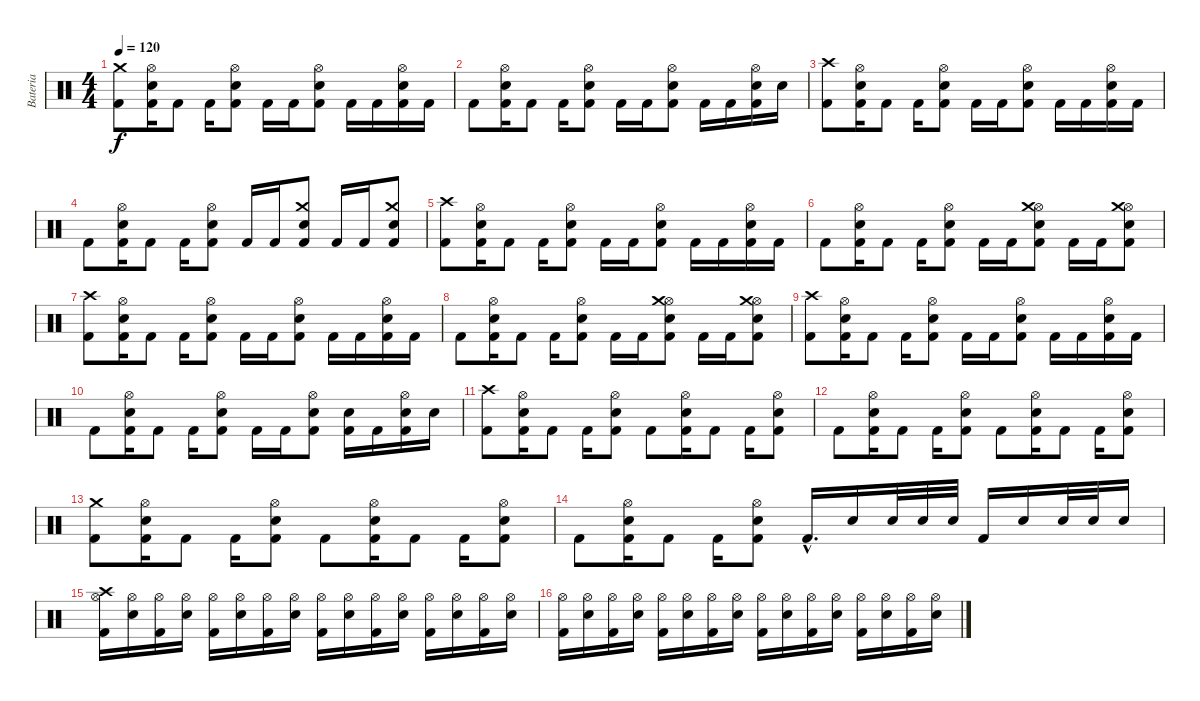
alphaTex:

\track ("Bateria" "Bateria") {instrument percussion}
\staff {score}
\articulation defaults
\ts (4 4)
\tempo 120
\clef neutral
\ks c
("Kick (hit) 2" "Crash medium (hit)").8{dy f} ("Kick (hit) 2" "Electric Snare (hit)" "Hi-Hat (open)").16 "Kick (hit) 2".8 "Kick (hit) 2".16 ("Kick (hit) 2" "Electric Snare (hit)" "Hi-Hat (open)").8 "Kick (hit) 2".16 "Kick (hit) 2".16 ("Kick (hit) 2" "Electric Snare (hit)" "Hi-Hat (open)").8 "Kick (hit) 2".16 "Kick (hit) 2".16 ("Kick (hit) 2" "Electric Snare (hit)" "Hi-Hat (open)").16 "Kick (hit) 2".16 |
"Kick (hit) 2".8 ("Kick (hit) 2" "Electric Snare (hit)" "Hi-Hat (open)").16 "Kick (hit) 2".8 "Kick (hit) 2".16 ("Kick (hit) 2" "Electric Snare (hit)" "Hi-Hat (open)").8 "Kick (hit) 2".16 "Kick (hit) 2".16 ("Kick (hit) 2" "Electric Snare (hit)" "Hi-Hat (open)").8 "Kick (hit) 2".16 "Kick (hit) 2".16 ("Kick (hit) 2" "Electric Snare (hit)" "Hi-Hat (open)").16 "Electric Snare (hit)".16 |
("Kick (hit) 2" "Crash high (hit)").8 ("Kick (hit) 2" "Electric Snare (hit)" "Hi-Hat (open)").16 "Kick (hit) 2".8 "Kick (hit) 2".16 ("Kick (hit) 2" "Electric Snare (hit)" "Hi-Hat (open)").8 "Kick (hit) 2".16 "Kick (hit) 2".16 ("Kick (hit) 2" "Electric Snare (hit)" "Hi-Hat (open)").8 "Kick (hit) 2".16 "Kick (hit) 2".16 ("Kick (hit) 2" "Electric Snare (hit)" "Hi-Hat (open)").16 "Kick (hit) 2".16 |
"Kick (hit) 2".8 ("Kick (hit) 2" "Electric Snare (hit)" "Hi-Hat (open)").16 "Kick (hit) 2".8 "Kick (hit) 2".16 ("Kick (hit) 2" "Electric Snare (hit)" "Hi-Hat (open)").8 "Kick (hit) 2".16 "Kick (hit) 2".16 ("Kick (hit) 2" "Electric Snare (hit)" "Crash medium (hit)").8 "Kick (hit) 2".16 "Kick (hit) 2".16 ("Kick (hit) 2" "Electric Snare (hit)" "Crash medium (hit)").8 |
("Kick (hit) 2" "Crash high (hit)").8 ("Kick (hit) 2" "Electric Snare (hit)" "Hi-Hat (open)").16 "Kick (hit) 2".8 "Kick (hit) 2".16 ("Kick (hit) 2" "Electric Snare (hit)" "Hi-Hat (open)").8 "Kick (hit) 2".16 "Kick (hit) 2".16 ("Kick (hit) 2" "Electric Snare (hit)" "Hi-Hat (open)").8 "Kick (hit) 2".16 "Kick (hit) 2".16 ("Kick (hit) 2" "Electric Snare (hit)" "Hi-Hat (open)").16 "Kick (hit) 2".16 |
"Kick (hit) 2".8 ("Kick (hit) 2" "Electric Snare (hit)" "Hi-Hat (open)").16 "Kick (hit) 2".8 "Kick (hit) 2".16 ("Kick (hit) 2" "Electric Snare (hit)" "Hi-Hat (open)").8 "Kick (hit) 2".16 "Kick (hit) 2".16 ("Kick (hit) 2" "Electric Snare (hit)" "Hi-Hat (open)" "Crash medium (hit)").8 "Kick (hit) 2".16 "Kick (hit) 2".16 ("Kick (hit) 2" "Electric Snare (hit)" "Hi-Hat (open)" "Crash medium (hit)").8 |
("Kick (hit) 2" "Crash high (hit)").8 ("Kick (hit) 2" "Electric Snare (hit)" "Hi-Hat (open)").16 "Kick (hit) 2".8 "Kick (hit) 2".16 ("Kick (hit) 2" "Electric Snare (hit)" "Hi-Hat (open)").8 "Kick (hit) 2".16 "Kick (hit) 2".16 ("Kick (hit) 2" "Electric Snare (hit)" "Hi-Hat (open)").8 "Kick (hit) 2".16 "Kick (hit) 2".16 ("Kick (hit) 2" "Electric Snare (hit)" "Hi-Hat (open)").16 "Kick (hit) 2".16 |
"Kick (hit) 2".8 ("Kick (hit) 2" "Electric Snare (hit)" "Hi-Hat (open)").16 "Kick (hit) 2".8 "Kick (hit) 2".16 ("Kick (hit) 2" "Electric Snare (hit)" "Hi-Hat (open)").8 "Kick (hit) 2".16 "Kick (hit) 2".16 ("Kick (hit) 2" "Electric Snare (hit)" "Hi-Hat (open)" "Crash medium (hit)").8 "Kick (hit) 2".16 "Kick (hit) 2".16 ("Kick (hit) 2" "Electric Snare (hit)" "Hi-Hat (open)" "Crash medium (hit)").8 |
("Kick (hit) 2" "Crash high (hit)").8 ("Kick (hit) 2" "Electric Snare (hit)" "Hi-Hat (open)").16 "Kick (hit) 2".8 "Kick (hit) 2".16 ("Kick (hit) 2" "Electric Snare (hit)" "Hi-Hat (open)").8 "Kick (hit) 2".16 "Kick (hit) 2".16 ("Kick (hit) 2" "Electric Snare (hit)" "Hi-Hat (open)").8 "Kick (hit) 2".16 "Kick (hit) 2".16 ("Kick (hit) 2" "Electric Snare (hit)" "Hi-Hat (open)").16 "Kick (hit) 2".16 |
"Kick (hit) 2".8 ("Kick (hit) 2" "Electric Snare (hit)" "Hi-Hat (open)").16 "Kick (hit) 2".8 "Kick (hit) 2".16 ("Kick (hit) 2" "Electric Snare (hit)" "Hi-Hat (open)").8 "Kick (hit) 2".16 "Kick (hit) 2".16 ("Kick (hit) 2" "Electric Snare (hit)" "Hi-Hat (open)").8 ("Kick (hit) 2" "Electric Snare (hit)").16 "Kick (hit) 2".16 ("Kick (hit) 2" "Electric Snare (hit)" "Hi-Hat (open)").16 "Electric Snare (hit)".16 |
("Kick (hit) 2" "Crash high (hit)").8 ("Kick (hit) 2" "Electric Snare (hit)" "Hi-Hat (open)").16 "Kick (hit) 2".8 "Kick (hit) 2".16 ("Kick (hit) 2" "Electric Snare (hit)" "Hi-Hat (open)").8 "Kick (hit) 2".8 ("Kick (hit) 2" "Electric Snare (hit)" "Hi-Hat (open)").16 "Kick (hit) 2".8 "Kick (hit) 2".16 ("Kick (hit) 2" "Electric Snare (hit)" "Hi-Hat (open)").8 |
"Kick (hit) 2".8 ("Kick (hit) 2" "Electric Snare (hit)" "Hi-Hat (open)").16 "Kick (hit) 2".8 "Kick (hit) 2".16 ("Kick (hit) 2" "Electric Snare (hit)" "Hi-Hat (open)").8 "Kick (hit) 2".8 ("Kick (hit) 2" "Electric Snare (hit)" "Hi-Hat (open)").16 "Kick (hit) 2".8 "Kick (hit) 2".16 ("Kick (hit) 2" "Electric Snare (hit)" "Hi-Hat (open)").8 |
("Kick (hit) 2" "Crash medium (hit)").8 ("Kick (hit) 2" "Electric Snare (hit)" "Hi-Hat (open)").16 "Kick (hit) 2".8 "Kick (hit) 2".16 ("Kick (hit) 2" "Electric Snare (hit)" "Hi-Hat (open)").8 "Kick (hit) 2".8 ("Kick (hit) 2" "Electric Snare (hit)" "Hi-Hat (open)").16 "Kick (hit) 2".8 "Kick (hit) 2".16 ("Kick (hit) 2" "Electric Snare (hit)" "Hi-Hat (open)").8 |
"Kick (hit) 2".8 ("Kick (hit) 2" "Electric Snare (hit)" "Hi-Hat (open)").16 "Kick (hit) 2".8 "Kick (hit) 2".16 ("Kick (hit) 2" "Electric Snare (hit)" "Hi-Hat (open)").8 "Kick (hit) 2"{hac}.16{d} "Electric Snare (hit)".16 "Electric Snare (hit)".32 "Electric Snare (hit)".32 "Electric Snare (hit)".32 "Kick (hit) 2".16 "Electric Snare (hit)".16 "Electric Snare (hit)".32 "Electric Snare (hit)".32 "Electric Snare (hit)".16 |
("Kick (hit) 2" "Hi-Hat (open)" "Crash high (hit)").16 ("Electric Snare (hit)" "Hi-Hat (open)").16 ("Kick (hit) 2" "Hi-Hat (open)").16 ("Electric Snare (hit)" "Hi-Hat (open)").16 ("Kick (hit) 2" "Hi-Hat (open)").16 ("Electric Snare (hit)" "Hi-Hat (open)").16 ("Kick (hit) 2" "Hi-Hat (open)").16 ("Electric Snare (hit)" "Hi-Hat (open)").16 ("Kick (hit) 2" "Hi-Hat (open)").16 ("Electric Snare (hit)" "Hi-Hat (open)").16 ("Kick (hit) 2" "Hi-Hat (open)").16 ("Electric Snare (hit)" "Hi-Hat (open)").16 ("Kick (hit) 2" "Hi-Hat (open)").16 ("Electric Snare (hit)" "Hi-Hat (open)").16 ("Kick (hit) 2" "Hi-Hat (open)").16 ("Electric Snare (hit)" "Hi-Hat (open)").16 |
("Kick (hit) 2" "Hi-Hat (open)").16 ("Electric Snare (hit)" "Hi-Hat (open)").16 ("Kick (hit) 2" "Hi-Hat (open)").16 ("Electric Snare (hit)" "Hi-Hat (open)").16 ("Kick (hit) 2" "Hi-Hat (open)").16 ("Electric Snare (hit)" "Hi-Hat (open)").16 ("Kick (hit) 2" "Hi-Hat (open)").16 ("Electric Snare (hit)" "Hi-Hat (open)").16 ("Kick (hit) 2" "Hi-Hat (open)").16 ("Electric Snare (hit)" "Hi-Hat (open)").16 ("Kick (hit) 2" "Hi-Hat (open)").16 ("Electric Snare (hit)" "Hi-Hat (open)").16 ("Kick (hit) 2" "Hi-Hat (open)").16 ("Electric Snare (hit)" "Hi-Hat (open)").16 ("Kick (hit) 2" "Hi-Hat (open)").16 ("Electric Snare (hit)" "Hi-Hat (open)").16
